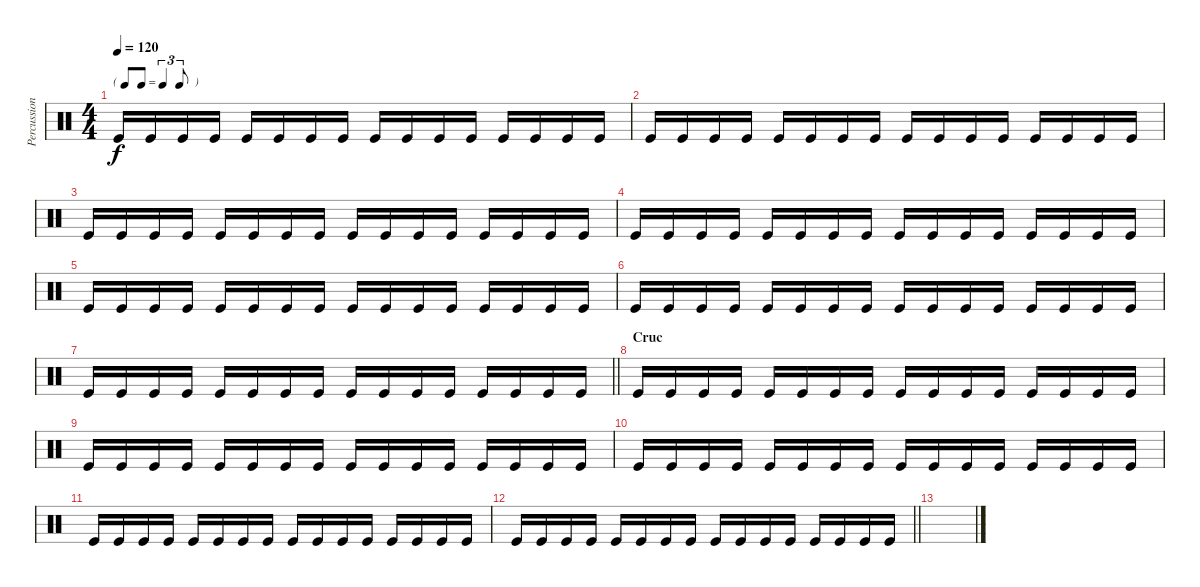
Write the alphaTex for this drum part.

\track ("Percussion" "Percussion") {instrument percussion}
\staff {score}
\articulation defaults
\ts (4 4)
\tf triplet8th
\tempo 120
\clef neutral
\ks c "Kick (hit)".16{dy f} "Kick (hit)".16 "Kick (hit)".16 "Kick (hit)".16 "Kick (hit)".16 "Kick (hit)".16 "Kick (hit)".16 "Kick (hit)".16 "Kick (hit)".16 "Kick (hit)".16 "Kick (hit)".16 "Kick (hit)".16 "Kick (hit)".16 "Kick (hit)".16 "Kick (hit)".16 "Kick (hit)".16
|
"Kick (hit)".16 "Kick (hit)".16 "Kick (hit)".16 "Kick (hit)".16 "Kick (hit)".16 "Kick (hit)".16 "Kick (hit)".16 "Kick (hit)".16 "Kick (hit)".16 "Kick (hit)".16 "Kick (hit)".16 "Kick (hit)".16 "Kick (hit)".16 "Kick (hit)".16 "Kick (hit)".16 "Kick (hit)".16 |
"Kick (hit)".16 "Kick (hit)".16 "Kick (hit)".16 "Kick (hit)".16 "Kick (hit)".16 "Kick (hit)".16 "Kick (hit)".16 "Kick (hit)".16 "Kick (hit)".16 "Kick (hit)".16 "Kick (hit)".16 "Kick (hit)".16 "Kick (hit)".16 "Kick (hit)".16 "Kick (hit)".16 "Kick (hit)".16 |
"Kick (hit)".16 "Kick (hit)".16 "Kick (hit)".16 "Kick (hit)".16 "Kick (hit)".16 "Kick (hit)".16 "Kick (hit)".16 "Kick (hit)".16 "Kick (hit)".16 "Kick (hit)".16 "Kick (hit)".16 "Kick (hit)".16 "Kick (hit)".16 "Kick (hit)".16 "Kick (hit)".16 "Kick (hit)".16 |
"Kick (hit)".16 "Kick (hit)".16 "Kick (hit)".16 "Kick (hit)".16 "Kick (hit)".16 "Kick (hit)".16 "Kick (hit)".16 "Kick (hit)".16 "Kick (hit)".16 "Kick (hit)".16 "Kick (hit)".16 "Kick (hit)".16 "Kick (hit)".16 "Kick (hit)".16 "Kick (hit)".16 "Kick (hit)".16 |
"Kick (hit)".16 "Kick (hit)".16 "Kick (hit)".16 "Kick (hit)".16 "Kick (hit)".16 "Kick (hit)".16 "Kick (hit)".16 "Kick (hit)".16 "Kick (hit)".16 "Kick (hit)".16 "Kick (hit)".16 "Kick (hit)".16 "Kick (hit)".16 "Kick (hit)".16 "Kick (hit)".16 "Kick (hit)".16 |
\barLineRight lightlight "Kick (hit)".16 "Kick (hit)".16 "Kick (hit)".16 "Kick (hit)".16 "Kick (hit)".16 "Kick (hit)".16 "Kick (hit)".16 "Kick (hit)".16 "Kick (hit)".16 "Kick (hit)".16 "Kick (hit)".16 "Kick (hit)".16 "Kick (hit)".16 "Kick (hit)".16 "Kick (hit)".16 "Kick (hit)".16
|
\section ("" "Cruc")
"Kick (hit)".16 "Kick (hit)".16 "Kick (hit)".16 "Kick (hit)".16 "Kick (hit)".16 "Kick (hit)".16 "Kick (hit)".16 "Kick (hit)".16 "Kick (hit)".16 "Kick (hit)".16 "Kick (hit)".16 "Kick (hit)".16 "Kick (hit)".16 "Kick (hit)".16 "Kick (hit)".16 "Kick (hit)".16 |
"Kick (hit)".16 "Kick (hit)".16 "Kick (hit)".16 "Kick (hit)".16 "Kick (hit)".16 "Kick (hit)".16 "Kick (hit)".16 "Kick (hit)".16 "Kick (hit)".16 "Kick (hit)".16 "Kick (hit)".16 "Kick (hit)".16 "Kick (hit)".16 "Kick (hit)".16 "Kick (hit)".16 "Kick (hit)".16 |
"Kick (hit)".16 "Kick (hit)".16 "Kick (hit)".16 "Kick (hit)".16 "Kick (hit)".16 "Kick (hit)".16 "Kick (hit)".16 "Kick (hit)".16 "Kick (hit)".16 "Kick (hit)".16 "Kick (hit)".16 "Kick (hit)".16 "Kick (hit)".16 "Kick (hit)".16 "Kick (hit)".16 "Kick (hit)".16 |
"Kick (hit)".16 "Kick (hit)".16 "Kick (hit)".16 "Kick (hit)".16 "Kick (hit)".16 "Kick (hit)".16 "Kick (hit)".16 "Kick (hit)".16 "Kick (hit)".16 "Kick (hit)".16 "Kick (hit)".16 "Kick (hit)".16 "Kick (hit)".16 "Kick (hit)".16 "Kick (hit)".16 "Kick (hit)".16 |
\barLineRight lightlight "Kick (hit)".16 "Kick (hit)".16 "Kick (hit)".16 "Kick (hit)".16 "Kick (hit)".16 "Kick (hit)".16 "Kick (hit)".16 "Kick (hit)".16 "Kick (hit)".16 "Kick (hit)".16 "Kick (hit)".16 "Kick (hit)".16 "Kick (hit)".16 "Kick (hit)".16 "Kick (hit)".16 "Kick (hit)".16
|
\section ("" "")
